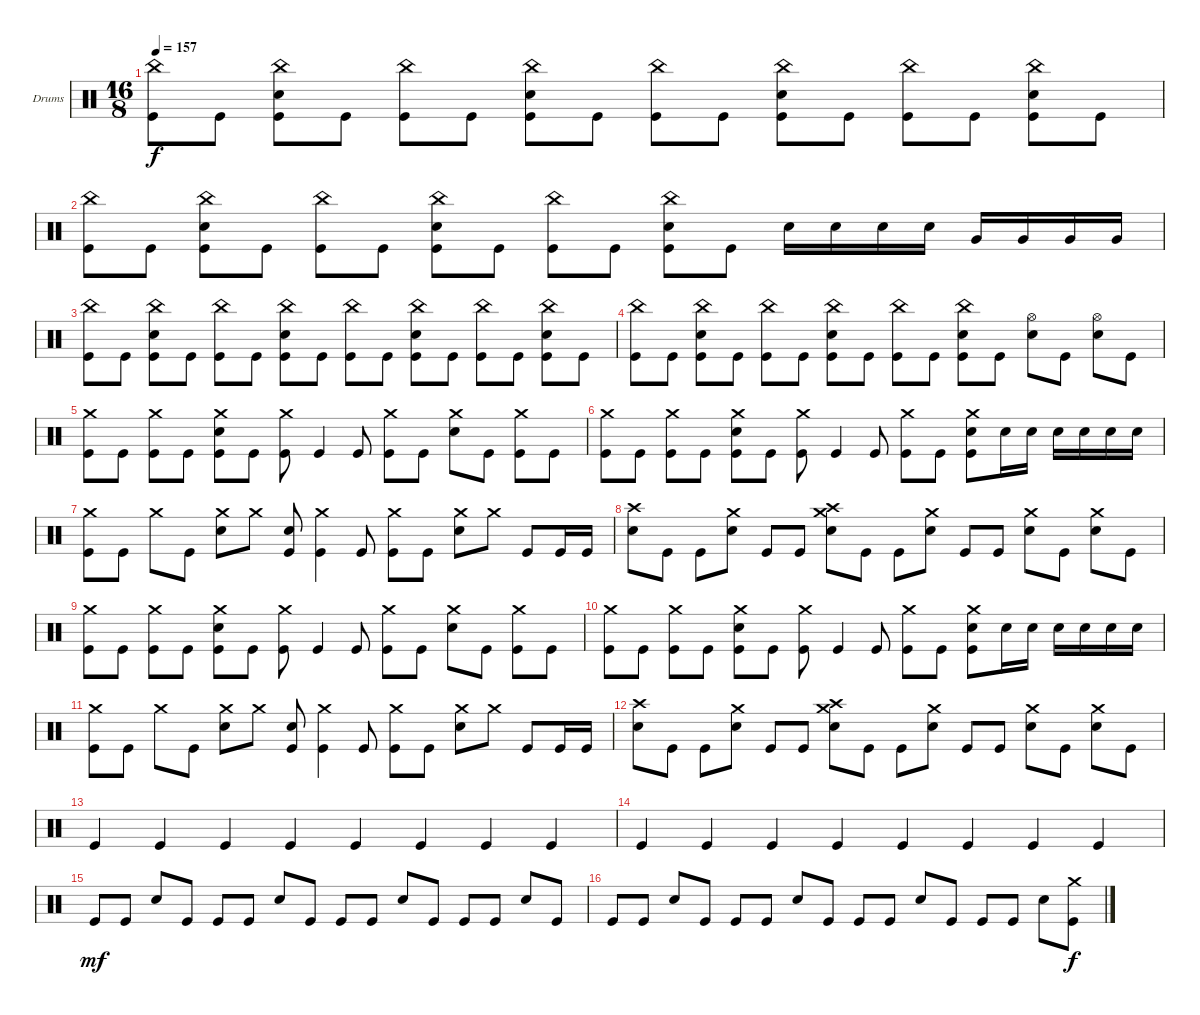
\bracketExtendMode groupsimilarinstruments
\firstSystemTrackNameOrientation horizontal
\otherSystemsTrackNameOrientation horizontal
\track ("Drumkit" "Drums") {instrument percussion}
\staff {score}
\articulation defaults
\ts (16 8)
\tempo 157
\clef neutral
\ks c
("China (hit)" "Kick (hit)").8{dy f} "Kick (hit)".8 ("Kick (hit)" "Snare (hit) 2" "China (hit)").8 "Kick (hit)".8 ("Kick (hit)" "China (hit)").8 "Kick (hit)".8 ("Kick (hit)" "Snare (hit) 2" "China (hit)").8 "Kick (hit)".8 ("China (hit)" "Kick (hit)").8 "Kick (hit)".8 ("Kick (hit)" "Snare (hit) 2" "China (hit)").8 "Kick (hit)".8 ("Kick (hit)" "China (hit)").8 "Kick (hit)".8 ("Kick (hit)" "Snare (hit) 2" "China (hit)").8 "Kick (hit)".8 |
("China (hit)" "Kick (hit)").8 "Kick (hit)".8 ("Kick (hit)" "Snare (hit) 2" "China (hit)").8 "Kick (hit)".8 ("Kick (hit)" "China (hit)").8 "Kick (hit)".8 ("Kick (hit)" "Snare (hit) 2" "China (hit)").8 "Kick (hit)".8 ("China (hit)" "Kick (hit)").8 "Kick (hit)".8 ("Kick (hit)" "Snare (hit) 2" "China (hit)").8 "Kick (hit)".8 "Snare (hit) 2".16 "Snare (hit) 2".16 "Snare (hit) 2".16 "Snare (hit) 2".16 "Very Low Tom (hit)".16 "Very Low Tom (hit)".16 "Very Low Tom (hit)".16 "Very Low Tom (hit)".16 |
("China (hit)" "Kick (hit)").8 "Kick (hit)".8 ("Kick (hit)" "Snare (hit) 2" "China (hit)").8 "Kick (hit)".8 ("Kick (hit)" "China (hit)").8 "Kick (hit)".8 ("Kick (hit)" "Snare (hit) 2" "China (hit)").8 "Kick (hit)".8 ("China (hit)" "Kick (hit)").8 "Kick (hit)".8 ("Kick (hit)" "Snare (hit) 2" "China (hit)").8 "Kick (hit)".8 ("Kick (hit)" "China (hit)").8 "Kick (hit)".8 ("Kick (hit)" "Snare (hit) 2" "China (hit)").8 "Kick (hit)".8 |
("China (hit)" "Kick (hit)").8 "Kick (hit)".8 ("Kick (hit)" "Snare (hit) 2" "China (hit)").8 "Kick (hit)".8 ("Kick (hit)" "China (hit)").8 "Kick (hit)".8 ("Kick (hit)" "Snare (hit) 2" "China (hit)").8 "Kick (hit)".8 ("China (hit)" "Kick (hit)").8 "Kick (hit)".8 ("Kick (hit)" "Snare (hit) 2" "China (hit)").8 "Kick (hit)".8 ("Hi-Hat (open)" "Snare (hit) 2").8 "Kick (hit)".8 ("Hi-Hat (open)" "Snare (hit) 2").8 "Kick (hit)".8 |
("Crash medium (hit)" "Kick (hit)").8 "Kick (hit)".8 ("Kick (hit)" "Crash medium (hit)").8 "Kick (hit)".8 ("Kick (hit)" "Crash medium (hit)" "Snare (hit) 2").8 "Kick (hit)".8 ("Kick (hit)" "Crash medium (hit)").8 "Kick (hit)".4 "Kick (hit)".8 ("Kick (hit)" "Crash medium (hit)").8 "Kick (hit)".8 ("Snare (hit) 2" "Crash medium (hit)").8 "Kick (hit)".8 ("Kick (hit)" "Crash medium (hit)").8 "Kick (hit)".8 |
("Crash medium (hit)" "Kick (hit)").8 "Kick (hit)".8 ("Kick (hit)" "Crash medium (hit)").8 "Kick (hit)".8 ("Kick (hit)" "Crash medium (hit)" "Snare (hit) 2").8 "Kick (hit)".8 ("Kick (hit)" "Crash medium (hit)").8 "Kick (hit)".4 "Kick (hit)".8 ("Kick (hit)" "Crash medium (hit)").8 "Kick (hit)".8 ("Kick (hit)" "Crash medium (hit)" "Snare (hit) 2").8 "Snare (hit) 2".16 "Snare (hit) 2".16 "Snare (hit) 2".16 "Snare (hit) 2".16 "Snare (hit) 2".16 "Snare (hit) 2".16 |
("Crash medium (hit)" "Kick (hit)").8 "Kick (hit)".8 "Crash medium (hit)".8 "Kick (hit)".8 ("Snare (hit) 2" "Crash medium (hit)").8 "Crash medium (hit)".8 ("Snare (hit) 2" "Kick (hit)").8 ("Crash medium (hit)" "Kick (hit)").4 "Kick (hit)".8 ("Kick (hit)" "Crash medium (hit)").8 "Kick (hit)".8 ("Snare (hit) 2" "Crash medium (hit)").8 "Crash medium (hit)".8 "Kick (hit)".8 "Kick (hit)".16 "Kick (hit)".16 |
("Snare (hit) 2" "Crash high (hit)").8 "Kick (hit)".8 "Kick (hit)".8 ("Crash medium (hit)" "Snare (hit) 2").8 "Kick (hit)".8 "Kick (hit)".8 ("Snare (hit) 2" "Crash medium (hit)" "Crash high (hit)").8 "Kick (hit)".8 "Kick (hit)".8 ("Crash medium (hit)" "Snare (hit) 2").8 "Kick (hit)".8 "Kick (hit)".8 ("Crash medium (hit)" "Snare (hit) 2").8 "Kick (hit)".8 ("Crash medium (hit)" "Snare (hit) 2").8 "Kick (hit)".8 |
("Crash medium (hit)" "Kick (hit)").8 "Kick (hit)".8 ("Kick (hit)" "Crash medium (hit)").8 "Kick (hit)".8 ("Kick (hit)" "Crash medium (hit)" "Snare (hit) 2").8 "Kick (hit)".8 ("Kick (hit)" "Crash medium (hit)").8 "Kick (hit)".4 "Kick (hit)".8 ("Kick (hit)" "Crash medium (hit)").8 "Kick (hit)".8 ("Snare (hit) 2" "Crash medium (hit)").8 "Kick (hit)".8 ("Kick (hit)" "Crash medium (hit)").8 "Kick (hit)".8 |
("Crash medium (hit)" "Kick (hit)").8 "Kick (hit)".8 ("Kick (hit)" "Crash medium (hit)").8 "Kick (hit)".8 ("Kick (hit)" "Crash medium (hit)" "Snare (hit) 2").8 "Kick (hit)".8 ("Kick (hit)" "Crash medium (hit)").8 "Kick (hit)".4 "Kick (hit)".8 ("Kick (hit)" "Crash medium (hit)").8 "Kick (hit)".8 ("Kick (hit)" "Crash medium (hit)" "Snare (hit) 2").8 "Snare (hit) 2".16 "Snare (hit) 2".16 "Snare (hit) 2".16 "Snare (hit) 2".16 "Snare (hit) 2".16 "Snare (hit) 2".16 |
("Crash medium (hit)" "Kick (hit)").8 "Kick (hit)".8 "Crash medium (hit)".8 "Kick (hit)".8 ("Snare (hit) 2" "Crash medium (hit)").8 "Crash medium (hit)".8 ("Snare (hit) 2" "Kick (hit)").8 ("Crash medium (hit)" "Kick (hit)").4 "Kick (hit)".8 ("Kick (hit)" "Crash medium (hit)").8 "Kick (hit)".8 ("Snare (hit) 2" "Crash medium (hit)").8 "Crash medium (hit)".8 "Kick (hit)".8 "Kick (hit)".16 "Kick (hit)".16 |
("Snare (hit) 2" "Crash high (hit)").8 "Kick (hit)".8 "Kick (hit)".8 ("Crash medium (hit)" "Snare (hit) 2").8 "Kick (hit)".8 "Kick (hit)".8 ("Snare (hit) 2" "Crash medium (hit)" "Crash high (hit)").8 "Kick (hit)".8 "Kick (hit)".8 ("Crash medium (hit)" "Snare (hit) 2").8 "Kick (hit)".8 "Kick (hit)".8 ("Crash medium (hit)" "Snare (hit) 2").8 "Kick (hit)".8 ("Crash medium (hit)" "Snare (hit) 2").8 "Kick (hit)".8 |
"Kick (hit)".4 "Kick (hit)".4 "Kick (hit)".4 "Kick (hit)".4 "Kick (hit)".4 "Kick (hit)".4 "Kick (hit)".4 "Kick (hit)".4 |
"Kick (hit)".4 "Kick (hit)".4 "Kick (hit)".4 "Kick (hit)".4 "Kick (hit)".4 "Kick (hit)".4 "Kick (hit)".4 "Kick (hit)".4 |
"Kick (hit)".8{dy mf} "Kick (hit)".8 "Snare (hit) 2".8 "Kick (hit)".8 "Kick (hit)".8 "Kick (hit)".8 "Snare (hit) 2".8 "Kick (hit)".8 "Kick (hit)".8 "Kick (hit)".8 "Snare (hit) 2".8 "Kick (hit)".8 "Kick (hit)".8 "Kick (hit)".8 "Snare (hit) 2".8 "Kick (hit)".8 |
"Kick (hit)".8 "Kick (hit)".8 "Snare (hit) 2".8 "Kick (hit)".8 "Kick (hit)".8 "Kick (hit)".8 "Snare (hit) 2".8 "Kick (hit)".8 "Kick (hit)".8 "Kick (hit)".8 "Snare (hit) 2".8 "Kick (hit)".8 "Kick (hit)".8 "Kick (hit)".8 "Snare (hit) 2".8 ("Crash medium (hit)" "Kick (hit)").8{dy f}
